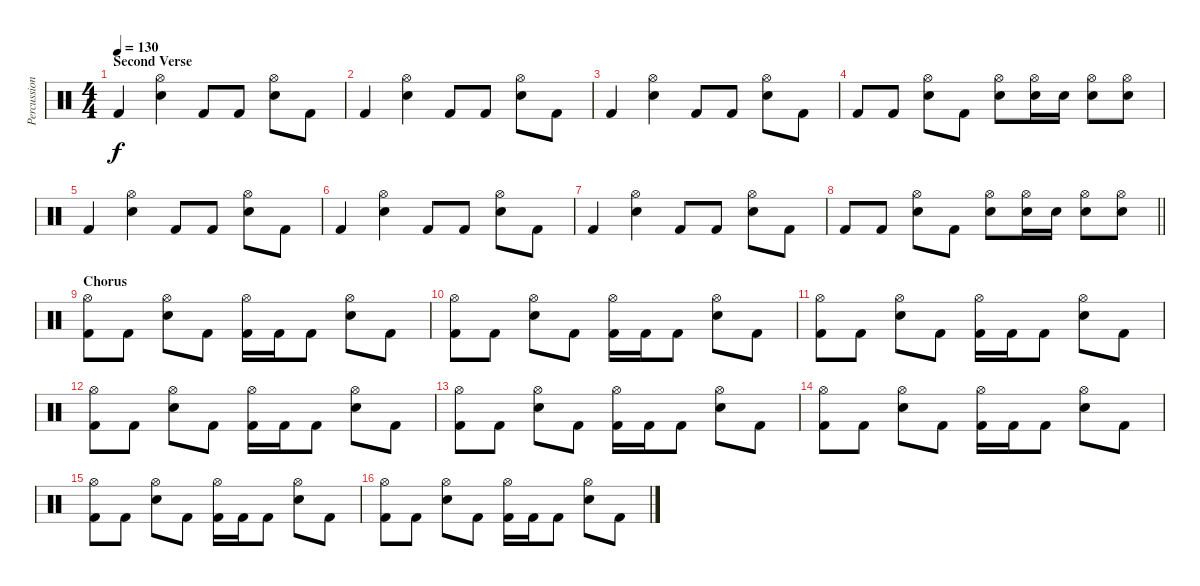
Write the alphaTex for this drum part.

\track ("Percussion" "Percussion") {instrument percussion}
\staff {score}
\articulation defaults
\ts (4 4)
\section ("" "Second Verse")
\tempo 130
\clef neutral
\ks c "Kick (hit) 2".4{dy f}
("Hi-Hat (open)" "Electric Snare (hit)").4 "Kick (hit) 2".8 "Kick (hit) 2".8 ("Hi-Hat (open)" "Electric Snare (hit)").8 "Kick (hit) 2".8 |
"Kick (hit) 2".4 ("Hi-Hat (open)" "Electric Snare (hit)").4 "Kick (hit) 2".8 "Kick (hit) 2".8 ("Hi-Hat (open)" "Electric Snare (hit)").8 "Kick (hit) 2".8 |
"Kick (hit) 2".4 ("Hi-Hat (open)" "Electric Snare (hit)").4 "Kick (hit) 2".8 "Kick (hit) 2".8 ("Hi-Hat (open)" "Electric Snare (hit)").8 "Kick (hit) 2".8 |
"Kick (hit) 2".8 "Kick (hit) 2".8 ("Hi-Hat (open)" "Electric Snare (hit)").8 "Kick (hit) 2".8 ("Hi-Hat (open)" "Electric Snare (hit)").8 ("Hi-Hat (open)" "Electric Snare (hit)").16 "Electric Snare (hit)".16 ("Hi-Hat (open)" "Electric Snare (hit)").8 ("Hi-Hat (open)" "Electric Snare (hit)").8 |
"Kick (hit) 2".4 ("Hi-Hat (open)" "Electric Snare (hit)").4 "Kick (hit) 2".8 "Kick (hit) 2".8 ("Hi-Hat (open)" "Electric Snare (hit)").8 "Kick (hit) 2".8 |
"Kick (hit) 2".4 ("Hi-Hat (open)" "Electric Snare (hit)").4 "Kick (hit) 2".8 "Kick (hit) 2".8 ("Hi-Hat (open)" "Electric Snare (hit)").8 "Kick (hit) 2".8 |
"Kick (hit) 2".4 ("Hi-Hat (open)" "Electric Snare (hit)").4 "Kick (hit) 2".8 "Kick (hit) 2".8 ("Hi-Hat (open)" "Electric Snare (hit)").8 "Kick (hit) 2".8 |
\barLineRight lightlight "Kick (hit) 2".8 "Kick (hit) 2".8
("Hi-Hat (open)" "Electric Snare (hit)").8 "Kick (hit) 2".8 ("Hi-Hat (open)" "Electric Snare (hit)").8 ("Hi-Hat (open)" "Electric Snare (hit)").16 "Electric Snare (hit)".16 ("Hi-Hat (open)" "Electric Snare (hit)").8 ("Hi-Hat (open)" "Electric Snare (hit)").8 |
\section ("" "Chorus")
("Hi-Hat (open)" "Kick (hit) 2").8 "Kick (hit) 2".8 ("Hi-Hat (open)" "Electric Snare (hit)").8 "Kick (hit) 2".8 ("Hi-Hat (open)" "Kick (hit) 2").16 "Kick (hit) 2".16 "Kick (hit) 2".8 ("Hi-Hat (open)" "Electric Snare (hit)").8 "Kick (hit) 2".8 |
("Hi-Hat (open)" "Kick (hit) 2").8 "Kick (hit) 2".8 ("Hi-Hat (open)" "Electric Snare (hit)").8 "Kick (hit) 2".8 ("Hi-Hat (open)" "Kick (hit) 2").16 "Kick (hit) 2".16 "Kick (hit) 2".8 ("Hi-Hat (open)" "Electric Snare (hit)").8 "Kick (hit) 2".8 |
("Hi-Hat (open)" "Kick (hit) 2").8 "Kick (hit) 2".8 ("Hi-Hat (open)" "Electric Snare (hit)").8 "Kick (hit) 2".8 ("Hi-Hat (open)" "Kick (hit) 2").16 "Kick (hit) 2".16 "Kick (hit) 2".8 ("Hi-Hat (open)" "Electric Snare (hit)").8 "Kick (hit) 2".8 |
("Hi-Hat (open)" "Kick (hit) 2").8 "Kick (hit) 2".8 ("Hi-Hat (open)" "Electric Snare (hit)").8 "Kick (hit) 2".8 ("Hi-Hat (open)" "Kick (hit) 2").16 "Kick (hit) 2".16 "Kick (hit) 2".8 ("Hi-Hat (open)" "Electric Snare (hit)").8 "Kick (hit) 2".8 |
("Hi-Hat (open)" "Kick (hit) 2").8 "Kick (hit) 2".8 ("Hi-Hat (open)" "Electric Snare (hit)").8 "Kick (hit) 2".8 ("Hi-Hat (open)" "Kick (hit) 2").16 "Kick (hit) 2".16 "Kick (hit) 2".8 ("Hi-Hat (open)" "Electric Snare (hit)").8 "Kick (hit) 2".8 |
("Hi-Hat (open)" "Kick (hit) 2").8 "Kick (hit) 2".8 ("Hi-Hat (open)" "Electric Snare (hit)").8 "Kick (hit) 2".8 ("Hi-Hat (open)" "Kick (hit) 2").16 "Kick (hit) 2".16 "Kick (hit) 2".8 ("Hi-Hat (open)" "Electric Snare (hit)").8 "Kick (hit) 2".8 |
("Hi-Hat (open)" "Kick (hit) 2").8 "Kick (hit) 2".8 ("Hi-Hat (open)" "Electric Snare (hit)").8 "Kick (hit) 2".8 ("Hi-Hat (open)" "Kick (hit) 2").16 "Kick (hit) 2".16 "Kick (hit) 2".8 ("Hi-Hat (open)" "Electric Snare (hit)").8 "Kick (hit) 2".8 |
("Hi-Hat (open)" "Kick (hit) 2").8 "Kick (hit) 2".8 ("Hi-Hat (open)" "Electric Snare (hit)").8 "Kick (hit) 2".8 ("Hi-Hat (open)" "Kick (hit) 2").16 "Kick (hit) 2".16 "Kick (hit) 2".8 ("Hi-Hat (open)" "Electric Snare (hit)").8 "Kick (hit) 2".8
